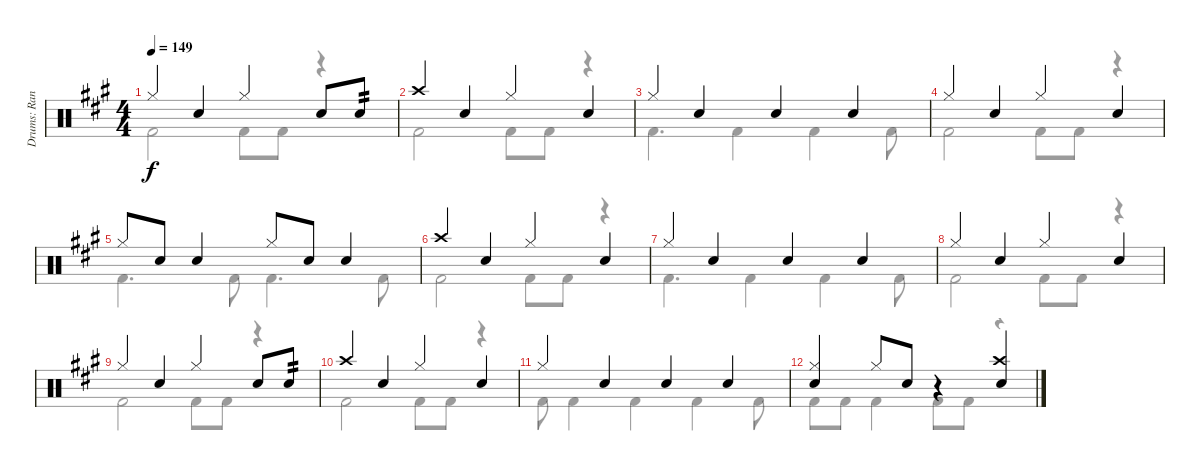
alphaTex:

\track ("Drums: Randy" "Drums: Ran") {instrument percussion}
\staff {score}
\articulation defaults
\voice
\ts (4 4)
\tempo 149
\clef neutral
\ks a "Hi-Hat (closed)".4{dy f} "Snare (hit) 2".4 "Hi-Hat (closed)".4 "Snare (hit) 2".8 "Snare (hit) 2".8{tp 2}
|
"Crash high (hit)".4 "Snare (hit) 2".4 "Hi-Hat (closed)".4 "Snare (hit) 2".4 |
"Hi-Hat (closed)".4 "Snare (hit) 2".4 "Snare (hit) 2".4 "Snare (hit) 2".4 |
"Hi-Hat (closed)".4 "Snare (hit) 2".4 "Hi-Hat (closed)".4 "Snare (hit) 2".4 |
"Hi-Hat (closed)".8 "Snare (hit) 2".8 "Snare (hit) 2".4 "Hi-Hat (closed)".8 "Snare (hit) 2".8 "Snare (hit) 2".4 |
"Crash high (hit)".4 "Snare (hit) 2".4 "Hi-Hat (closed)".4 "Snare (hit) 2".4 |
"Hi-Hat (closed)".4 "Snare (hit) 2".4 "Snare (hit) 2".4 "Snare (hit) 2".4 |
"Hi-Hat (closed)".4 "Snare (hit) 2".4 "Hi-Hat (closed)".4 "Snare (hit) 2".4 |
"Hi-Hat (closed)".4 "Snare (hit) 2".4 "Hi-Hat (closed)".4 "Snare (hit) 2".8 "Snare (hit) 2".8{tp 2} |
"Crash high (hit)".4 "Snare (hit) 2".4 "Hi-Hat (closed)".4 "Snare (hit) 2".4 |
"Hi-Hat (closed)".4 "Snare (hit) 2".4 "Snare (hit) 2".4 "Snare (hit) 2".4 |
("Hi-Hat (closed)" "Snare (hit) 2").4 "Hi-Hat (closed)".8 "Snare (hit) 2".8 r.4 ("Crash high (hit)" "Snare (hit) 2").4 |
|
|
\voice
\clef neutral
\ottava regular
\simile none
\ks a "Kick (hit) 2".2{dy f} "Kick (hit) 2".8 "Kick (hit) 2".8
r.4 |
"Kick (hit) 2".2 "Kick (hit) 2".8 "Kick (hit) 2".8 r.4 |
"Kick (hit) 2".4{d} "Kick (hit) 2".4 "Kick (hit) 2".4 "Kick (hit) 2".8 |
"Kick (hit) 2".2 "Kick (hit) 2".8 "Kick (hit) 2".8 r.4 |
"Kick (hit) 2".4{d} "Kick (hit) 2".8 "Kick (hit) 2".4{d} "Kick (hit) 2".8 |
"Kick (hit) 2".2 "Kick (hit) 2".8 "Kick (hit) 2".8 r.4 |
"Kick (hit) 2".4{d} "Kick (hit) 2".4 "Kick (hit) 2".4 "Kick (hit) 2".8 |
"Kick (hit) 2".2 "Kick (hit) 2".8 "Kick (hit) 2".8 r.4 |
"Kick (hit) 2".2 "Kick (hit) 2".8 "Kick (hit) 2".8 r.4 |
"Kick (hit) 2".2 "Kick (hit) 2".8 "Kick (hit) 2".8 r.4 |
"Kick (hit) 2".8 "Kick (hit) 2".4 "Kick (hit) 2".4 "Kick (hit) 2".4 "Kick (hit) 2".8 |
"Kick (hit) 2".8 "Kick (hit) 2".8 "Kick (hit) 2".4 "Kick (hit) 2".8 "Kick (hit) 2".8 r.4 |
|
|
